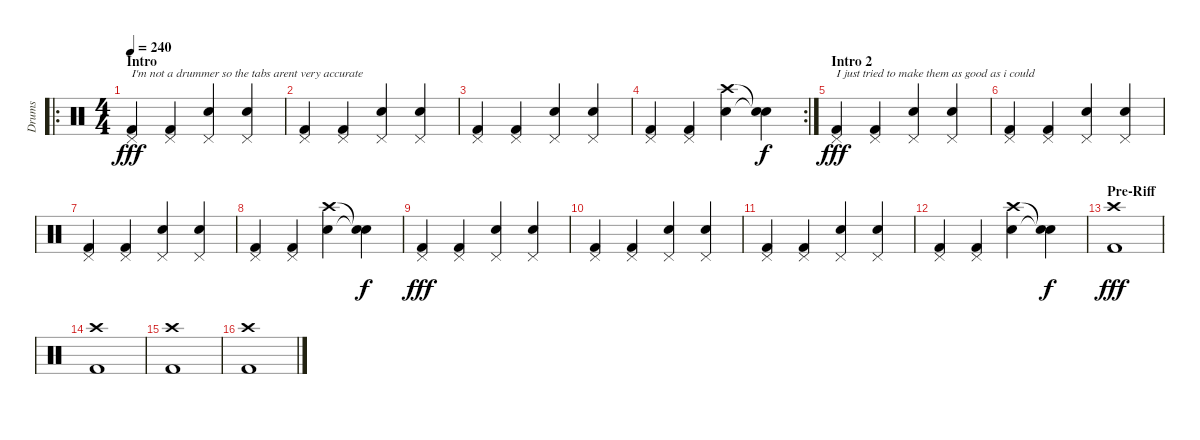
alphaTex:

\track ("Drums" "Drums") {instrument percussion}
\staff {score}
\articulation defaults
\ro
\ts (4 4)
\section ("" "Intro")
\tempo 240
\clef neutral
\ks c
("Kick (hit) 2" "Pedal Hi-Hat (hit)").4{txt "I'm not a drummer so the tabs arent very accurate " dy fff} ("Kick (hit) 2" "Pedal Hi-Hat (hit)").4 ("Snare (hit) 2" "Pedal Hi-Hat (hit)").4 ("Snare (hit) 2" "Pedal Hi-Hat (hit)").4 |
("Kick (hit) 2" "Pedal Hi-Hat (hit)").4 ("Kick (hit) 2" "Pedal Hi-Hat (hit)").4 ("Snare (hit) 2" "Pedal Hi-Hat (hit)").4 ("Snare (hit) 2" "Pedal Hi-Hat (hit)").4 |
("Kick (hit) 2" "Pedal Hi-Hat (hit)").4 ("Kick (hit) 2" "Pedal Hi-Hat (hit)").4 ("Snare (hit) 2" "Pedal Hi-Hat (hit)").4 ("Snare (hit) 2" "Pedal Hi-Hat (hit)").4 |
\rc 2
("Kick (hit) 2" "Pedal Hi-Hat (hit)").4 ("Kick (hit) 2" "Pedal Hi-Hat (hit)").4 ("Snare (hit) 2" "Crash high (hit)").4 ("Snare (hit) 2"{t} "Snare (hit)"{t}).4{dy f} |
\section ("" "Intro 2")
("Kick (hit) 2" "Pedal Hi-Hat (hit)").4{txt "I just tried to make them as good as i could" dy fff} ("Kick (hit) 2" "Pedal Hi-Hat (hit)").4 ("Snare (hit) 2" "Pedal Hi-Hat (hit)").4 ("Snare (hit) 2" "Pedal Hi-Hat (hit)").4 |
("Kick (hit) 2" "Pedal Hi-Hat (hit)").4 ("Kick (hit) 2" "Pedal Hi-Hat (hit)").4 ("Snare (hit) 2" "Pedal Hi-Hat (hit)").4 ("Snare (hit) 2" "Pedal Hi-Hat (hit)").4 |
("Kick (hit) 2" "Pedal Hi-Hat (hit)").4 ("Kick (hit) 2" "Pedal Hi-Hat (hit)").4 ("Snare (hit) 2" "Pedal Hi-Hat (hit)").4 ("Snare (hit) 2" "Pedal Hi-Hat (hit)").4 |
("Kick (hit) 2" "Pedal Hi-Hat (hit)").4 ("Kick (hit) 2" "Pedal Hi-Hat (hit)").4 ("Snare (hit) 2" "Crash high (hit)").4 ("Snare (hit) 2"{t} "Snare (hit)"{t}).4{dy f} |
("Kick (hit) 2" "Pedal Hi-Hat (hit)").4{dy fff} ("Kick (hit) 2" "Pedal Hi-Hat (hit)").4 ("Snare (hit) 2" "Pedal Hi-Hat (hit)").4 ("Snare (hit) 2" "Pedal Hi-Hat (hit)").4 |
("Kick (hit) 2" "Pedal Hi-Hat (hit)").4 ("Kick (hit) 2" "Pedal Hi-Hat (hit)").4 ("Snare (hit) 2" "Pedal Hi-Hat (hit)").4 ("Snare (hit) 2" "Pedal Hi-Hat (hit)").4 |
("Kick (hit) 2" "Pedal Hi-Hat (hit)").4 ("Kick (hit) 2" "Pedal Hi-Hat (hit)").4 ("Snare (hit) 2" "Pedal Hi-Hat (hit)").4 ("Snare (hit) 2" "Pedal Hi-Hat (hit)").4 |
("Kick (hit) 2" "Pedal Hi-Hat (hit)").4 ("Kick (hit) 2" "Pedal Hi-Hat (hit)").4 ("Snare (hit) 2" "Crash high (hit)").4 ("Snare (hit) 2"{t} "Snare (hit)"{t}).4{dy f} |
\section ("" "Pre-Riff")
("Kick (hit) 2" "Crash high (hit)").1{dy fff} |
("Kick (hit) 2" "Crash high (hit)").1 |
("Kick (hit) 2" "Crash high (hit)").1 |
("Kick (hit) 2" "Crash high (hit)").1
